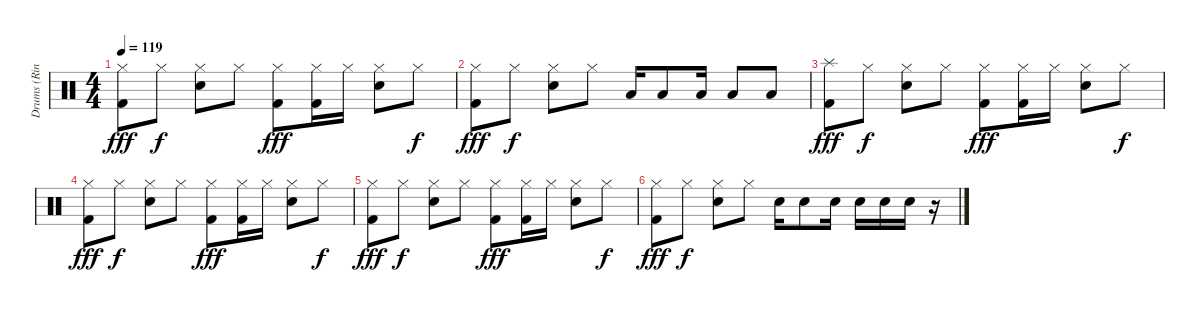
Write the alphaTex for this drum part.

\track ("Drums (Ringo Starr)" "Drums (Rin") {instrument percussion}
\staff {score}
\articulation defaults
\ts (4 4)
\tempo 119
\clef neutral
\ks c
("Hi-Hat (closed)" "Kick (hit) 2").8{dy fff} "Hi-Hat (closed)".8{dy f} ("Hi-Hat (closed)" "Snare (hit) 2").8 "Hi-Hat (closed)".8 ("Hi-Hat (closed)" "Kick (hit) 2").8{dy fff} ("Hi-Hat (closed)" "Kick (hit) 2").16 "Hi-Hat (closed)".16 ("Hi-Hat (closed)" "Snare (hit) 2").8 "Hi-Hat (closed)".8{dy f} |
("Hi-Hat (closed)" "Kick (hit) 2").8{dy fff} "Hi-Hat (closed)".8{dy f} ("Hi-Hat (closed)" "Snare (hit) 2").8 "Hi-Hat (closed)".8 "Low Floor Tom (hit)".16 "Low Floor Tom (hit)".8 "Low Floor Tom (hit)".16 "Low Floor Tom (hit)".8 "Low Floor Tom (hit)".8 |
("Splash (hit)" "Kick (hit) 2").8{dy fff} "Hi-Hat (closed)".8{dy f} ("Hi-Hat (closed)" "Snare (hit) 2").8 "Hi-Hat (closed)".8 ("Hi-Hat (closed)" "Kick (hit) 2").8{dy fff} ("Hi-Hat (closed)" "Kick (hit) 2").16 "Hi-Hat (closed)".16 ("Hi-Hat (closed)" "Snare (hit) 2").8 "Hi-Hat (closed)".8{dy f} |
("Hi-Hat (closed)" "Kick (hit) 2").8{dy fff} "Hi-Hat (closed)".8{dy f} ("Hi-Hat (closed)" "Snare (hit) 2").8 "Hi-Hat (closed)".8 ("Hi-Hat (closed)" "Kick (hit) 2").8{dy fff} ("Hi-Hat (closed)" "Kick (hit) 2").16 "Hi-Hat (closed)".16 ("Hi-Hat (closed)" "Snare (hit) 2").8 "Hi-Hat (closed)".8{dy f} |
("Hi-Hat (closed)" "Kick (hit) 2").8{dy fff} "Hi-Hat (closed)".8{dy f} ("Hi-Hat (closed)" "Snare (hit) 2").8 "Hi-Hat (closed)".8 ("Hi-Hat (closed)" "Kick (hit) 2").8{dy fff} ("Hi-Hat (closed)" "Kick (hit) 2").16 "Hi-Hat (closed)".16 ("Hi-Hat (closed)" "Snare (hit) 2").8 "Hi-Hat (closed)".8{dy f} |
("Hi-Hat (closed)" "Kick (hit) 2").8{dy fff} "Hi-Hat (closed)".8{dy f} ("Hi-Hat (closed)" "Snare (hit) 2").8 "Hi-Hat (closed)".8 "Snare (hit) 2".16 "Snare (hit) 2".8 "Snare (hit) 2".16 "Snare (hit) 2".16 "Snare (hit) 2".16 "Snare (hit) 2".16 r.16
